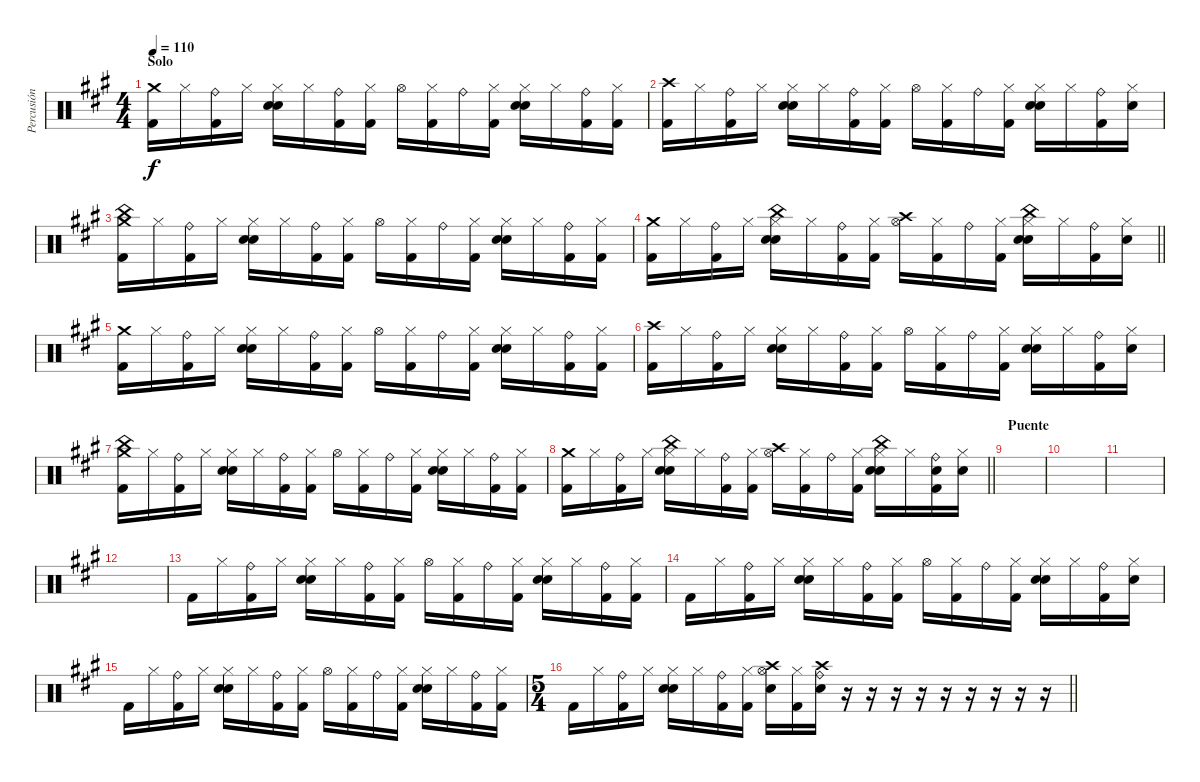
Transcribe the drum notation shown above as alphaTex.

\track ("Percusión" "Percusión") {instrument percussion}
\staff {score}
\articulation defaults
\ts (4 4)
\section ("" "Solo")
\tempo 110
\clef neutral
\ks a
("Crash medium (hit)" "Kick (hit) 2").16{dy f} "Hi-Hat (closed)".16 ("Ride (bell)" "Kick (hit) 2").16 "Hi-Hat (closed)".16 ("Hi-Hat (closed)" "Hand Clap (hit)" "Electric Snare (hit)").16 "Hi-Hat (closed)".16 ("Ride (bell)" "Kick (hit) 2").16 ("Hi-Hat (closed)" "Kick (hit) 2").16 "Hi-Hat (open)".16 ("Hi-Hat (closed)" "Kick (hit) 2").16 "Ride (bell)".16 ("Hi-Hat (closed)" "Kick (hit) 2").16 ("Hi-Hat (closed)" "Hand Clap (hit)" "Electric Snare (hit)").16 "Hi-Hat (closed)".16 ("Ride (bell)" "Kick (hit) 2").16 ("Hi-Hat (closed)" "Kick (hit) 2").16 |
("Crash high (hit)" "Kick (hit) 2").16 "Hi-Hat (closed)".16 ("Ride (bell)" "Kick (hit) 2").16 "Hi-Hat (closed)".16 ("Hi-Hat (closed)" "Hand Clap (hit)" "Electric Snare (hit)").16 "Hi-Hat (closed)".16 ("Ride (bell)" "Kick (hit) 2").16 ("Hi-Hat (closed)" "Kick (hit) 2").16 "Hi-Hat (open)".16 ("Hi-Hat (closed)" "Kick (hit) 2").16 "Ride (bell)".16 ("Hi-Hat (closed)" "Kick (hit) 2").16 ("Hi-Hat (closed)" "Hand Clap (hit)" "Electric Snare (hit)").16 "Hi-Hat (closed)".16 ("Ride (bell)" "Kick (hit) 2").16 ("Hi-Hat (closed)" "Hand Clap (hit)").16 |
("Crash medium (hit)" "China (hit)" "Kick (hit) 2").16 "Hi-Hat (closed)".16 ("Ride (bell)" "Kick (hit) 2").16 "Hi-Hat (closed)".16 ("Hi-Hat (closed)" "Hand Clap (hit)" "Electric Snare (hit)").16 "Hi-Hat (closed)".16 ("Ride (bell)" "Kick (hit) 2").16 ("Hi-Hat (closed)" "Kick (hit) 2").16 "Hi-Hat (open)".16 ("Hi-Hat (closed)" "Kick (hit) 2").16 "Ride (bell)".16 ("Hi-Hat (closed)" "Kick (hit) 2").16 ("Hi-Hat (closed)" "Hand Clap (hit)" "Electric Snare (hit)").16 "Hi-Hat (closed)".16 ("Ride (bell)" "Kick (hit) 2").16 ("Hi-Hat (closed)" "Kick (hit) 2").16 |
\barLineRight lightlight
("Crash medium (hit)" "Kick (hit) 2").16 "Hi-Hat (closed)".16 ("Ride (bell)" "Kick (hit) 2").16 "Hi-Hat (closed)".16 ("China (hit)" "Hi-Hat (closed)" "Hand Clap (hit)" "Electric Snare (hit)").16 "Hi-Hat (closed)".16 ("Ride (bell)" "Kick (hit) 2").16 ("Hi-Hat (closed)" "Kick (hit) 2").16 ("Crash high (hit)" "Hi-Hat (open)").16 ("Hi-Hat (closed)" "Kick (hit) 2").16 "Ride (bell)".16 ("Hi-Hat (closed)" "Kick (hit) 2").16 ("China (hit)" "Hi-Hat (closed)" "Hand Clap (hit)" "Electric Snare (hit)").16 "Hi-Hat (closed)".16 ("Ride (bell)" "Kick (hit) 2").16 ("Hi-Hat (closed)" "Hand Clap (hit)").16 |
("Crash medium (hit)" "Kick (hit) 2").16 "Hi-Hat (closed)".16 ("Ride (bell)" "Kick (hit) 2").16 "Hi-Hat (closed)".16 ("Hi-Hat (closed)" "Hand Clap (hit)" "Electric Snare (hit)").16 "Hi-Hat (closed)".16 ("Ride (bell)" "Kick (hit) 2").16 ("Hi-Hat (closed)" "Kick (hit) 2").16 "Hi-Hat (open)".16 ("Hi-Hat (closed)" "Kick (hit) 2").16 "Ride (bell)".16 ("Hi-Hat (closed)" "Kick (hit) 2").16 ("Hi-Hat (closed)" "Hand Clap (hit)" "Electric Snare (hit)").16 "Hi-Hat (closed)".16 ("Ride (bell)" "Kick (hit) 2").16 ("Hi-Hat (closed)" "Kick (hit) 2").16 |
("Crash high (hit)" "Kick (hit) 2").16 "Hi-Hat (closed)".16 ("Ride (bell)" "Kick (hit) 2").16 "Hi-Hat (closed)".16 ("Hi-Hat (closed)" "Hand Clap (hit)" "Electric Snare (hit)").16 "Hi-Hat (closed)".16 ("Ride (bell)" "Kick (hit) 2").16 ("Hi-Hat (closed)" "Kick (hit) 2").16 "Hi-Hat (open)".16 ("Hi-Hat (closed)" "Kick (hit) 2").16 "Ride (bell)".16 ("Hi-Hat (closed)" "Kick (hit) 2").16 ("Hi-Hat (closed)" "Hand Clap (hit)" "Electric Snare (hit)").16 "Hi-Hat (closed)".16 ("Ride (bell)" "Kick (hit) 2").16 ("Hi-Hat (closed)" "Hand Clap (hit)").16 |
("Crash medium (hit)" "China (hit)" "Kick (hit) 2").16 "Hi-Hat (closed)".16 ("Ride (bell)" "Kick (hit) 2").16 "Hi-Hat (closed)".16 ("Hi-Hat (closed)" "Hand Clap (hit)" "Electric Snare (hit)").16 "Hi-Hat (closed)".16 ("Ride (bell)" "Kick (hit) 2").16 ("Hi-Hat (closed)" "Kick (hit) 2").16 "Hi-Hat (open)".16 ("Hi-Hat (closed)" "Kick (hit) 2").16 "Ride (bell)".16 ("Hi-Hat (closed)" "Kick (hit) 2").16 ("Hi-Hat (closed)" "Hand Clap (hit)" "Electric Snare (hit)").16 "Hi-Hat (closed)".16 ("Ride (bell)" "Kick (hit) 2").16 ("Hi-Hat (closed)" "Kick (hit) 2").16 |
\barLineRight lightlight
("Crash medium (hit)" "Kick (hit) 2").16 "Hi-Hat (closed)".16 ("Ride (bell)" "Kick (hit) 2").16 "Hi-Hat (closed)".16 ("China (hit)" "Hi-Hat (closed)" "Hand Clap (hit)" "Electric Snare (hit)").16 "Hi-Hat (closed)".16 ("Ride (bell)" "Kick (hit) 2").16 ("Hi-Hat (closed)" "Kick (hit) 2").16 ("Crash high (hit)" "Hi-Hat (open)").16 ("Hi-Hat (closed)" "Kick (hit) 2").16 "Ride (bell)".16 ("Hi-Hat (closed)" "Kick (hit) 2").16 ("China (hit)" "Hi-Hat (closed)" "Hand Clap (hit)" "Electric Snare (hit)").16 "Hi-Hat (closed)".16 ("Ride (bell)" "Hand Clap (hit)" "Kick (hit) 2").16 ("Hi-Hat (closed)" "Hand Clap (hit)").16 |
\section ("" "Puente")
|
|
|
|
"Kick (hit) 2".16 "Hi-Hat (closed)".16 ("Ride (bell)" "Kick (hit) 2").16 "Hi-Hat (closed)".16 ("Hi-Hat (closed)" "Hand Clap (hit)" "Electric Snare (hit)").16 "Hi-Hat (closed)".16 ("Ride (bell)" "Kick (hit) 2").16 ("Hi-Hat (closed)" "Kick (hit) 2").16 "Hi-Hat (open)".16 ("Hi-Hat (closed)" "Kick (hit) 2").16 "Ride (bell)".16 ("Hi-Hat (closed)" "Kick (hit) 2").16 ("Hi-Hat (closed)" "Hand Clap (hit)" "Electric Snare (hit)").16 "Hi-Hat (closed)".16 ("Ride (bell)" "Kick (hit) 2").16 ("Hi-Hat (closed)" "Kick (hit) 2").16 |
"Kick (hit) 2".16 "Hi-Hat (closed)".16 ("Ride (bell)" "Kick (hit) 2").16 "Hi-Hat (closed)".16 ("Hi-Hat (closed)" "Hand Clap (hit)" "Electric Snare (hit)").16 "Hi-Hat (closed)".16 ("Ride (bell)" "Kick (hit) 2").16 ("Hi-Hat (closed)" "Kick (hit) 2").16 "Hi-Hat (open)".16 ("Hi-Hat (closed)" "Kick (hit) 2").16 "Ride (bell)".16 ("Hi-Hat (closed)" "Kick (hit) 2").16 ("Hi-Hat (closed)" "Hand Clap (hit)" "Electric Snare (hit)").16 "Hi-Hat (closed)".16 ("Ride (bell)" "Kick (hit) 2").16 ("Hi-Hat (closed)" "Hand Clap (hit)").16 |
"Kick (hit) 2".16 "Hi-Hat (closed)".16 ("Ride (bell)" "Kick (hit) 2").16 "Hi-Hat (closed)".16 ("Hi-Hat (closed)" "Hand Clap (hit)" "Electric Snare (hit)").16 "Hi-Hat (closed)".16 ("Ride (bell)" "Kick (hit) 2").16 ("Hi-Hat (closed)" "Kick (hit) 2").16 "Hi-Hat (open)".16 ("Hi-Hat (closed)" "Kick (hit) 2").16 "Ride (bell)".16 ("Hi-Hat (closed)" "Kick (hit) 2").16 ("Hi-Hat (closed)" "Hand Clap (hit)" "Electric Snare (hit)").16 "Hi-Hat (closed)".16 ("Ride (bell)" "Kick (hit) 2").16 ("Hi-Hat (closed)" "Kick (hit) 2").16 |
\ts (5 4)
\barLineRight lightlight "Kick (hit) 2".16 "Hi-Hat (closed)".16
("Ride (bell)" "Kick (hit) 2").16 "Hi-Hat (closed)".16 ("Hi-Hat (closed)" "Hand Clap (hit)" "Electric Snare (hit)").16 "Hi-Hat (closed)".16 ("Ride (bell)" "Kick (hit) 2").16 ("Hi-Hat (closed)" "Kick (hit) 2").16 ("Crash high (hit)" "Hi-Hat (open)" "Hand Clap (hit)").16 ("Hi-Hat (closed)" "Kick (hit) 2").16 ("Crash high (hit)" "Ride (bell)" "Hand Clap (hit)").16 r.16 r.16 r.16 r.16 r.16 r.16 r.16 r.16 r.16
